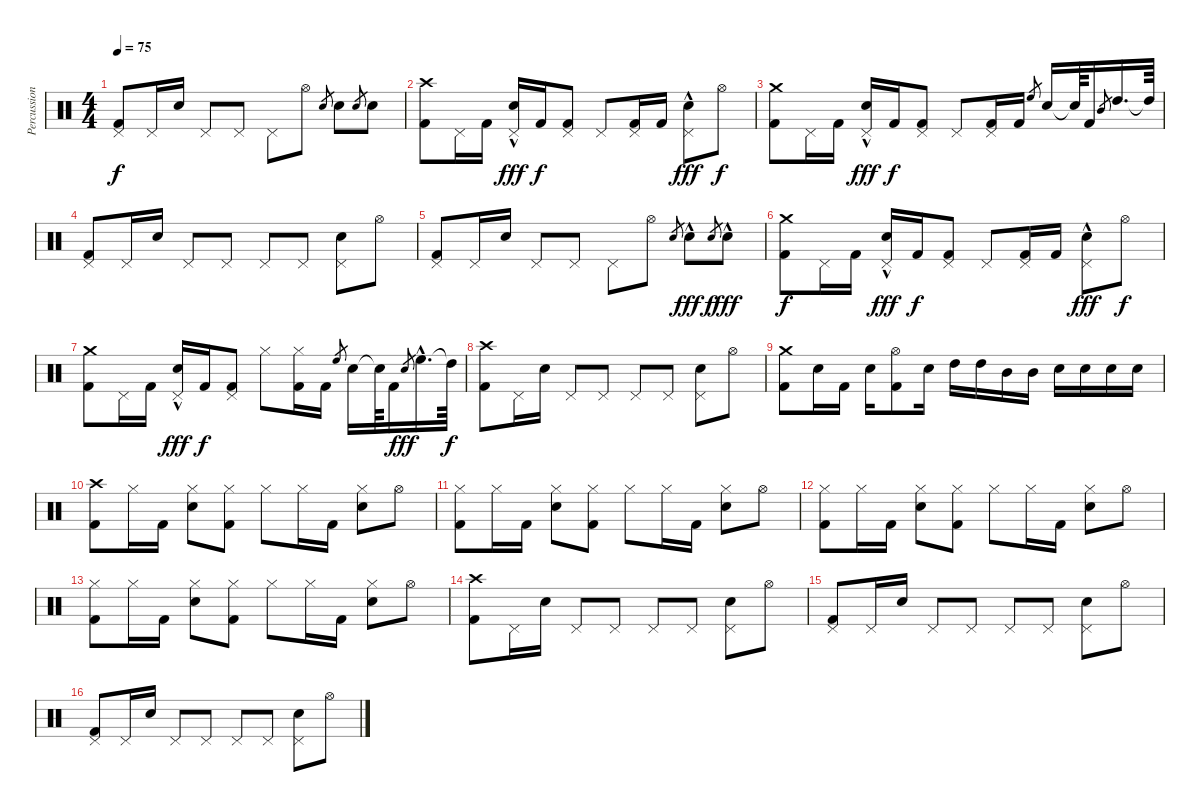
\track ("Percussion" "Percussion") {instrument percussion}
\staff {score}
\articulation defaults
\ts (4 4)
\tempo 75
\clef neutral
\ks c
("Pedal Hi-Hat (hit)" "Kick (hit) 2").8{dy f} "Pedal Hi-Hat (hit)".16 "Electric Snare (hit)".16 "Pedal Hi-Hat (hit)".8 "Pedal Hi-Hat (hit)".8 "Pedal Hi-Hat (hit)".8 "Hi-Hat (open)".8 "Electric Snare (hit)".8{gr} "Electric Snare (hit)".8 "Electric Snare (hit)".8{gr} "Electric Snare (hit)".8 |
("Crash high (hit)" "Kick (hit) 2").8 "Pedal Hi-Hat (hit)".16 "Kick (hit) 2".16 ("Pedal Hi-Hat (hit)" "Electric Snare (hit)"{hac}).16{dy fff} "Kick (hit) 2".16{dy f} ("Pedal Hi-Hat (hit)" "Kick (hit) 2").8 "Pedal Hi-Hat (hit)".8 ("Pedal Hi-Hat (hit)" "Kick (hit) 2").16 "Kick (hit) 2".16 ("Pedal Hi-Hat (hit)" "Electric Snare (hit)"{hac}).8{dy fff} "Hi-Hat (open)".8{dy f} |
("Crash medium (hit)" "Kick (hit) 2").8 "Pedal Hi-Hat (hit)".16 "Kick (hit) 2".16 ("Pedal Hi-Hat (hit)" "Electric Snare (hit)"{hac}).16{dy fff} "Kick (hit) 2".16{dy f} ("Pedal Hi-Hat (hit)" "Kick (hit) 2").8 "Pedal Hi-Hat (hit)".8 ("Pedal Hi-Hat (hit)" "Kick (hit) 2").16 "Kick (hit) 2".16 "High Floor Tom (hit)".8{gr} "Electric Snare (hit)".16 "Electric Snare (hit)"{t}.64 "Kick (hit) 2".16 "Mid Tom (hit)".8{gr} "High Tom (hit)".16{d} "High Tom (hit)"{t}.64 |
("Pedal Hi-Hat (hit)" "Kick (hit) 2").8 "Pedal Hi-Hat (hit)".16 "Electric Snare (hit)".16 "Pedal Hi-Hat (hit)".8 "Pedal Hi-Hat (hit)".8 "Pedal Hi-Hat (hit)".8 "Pedal Hi-Hat (hit)".8 ("Pedal Hi-Hat (hit)" "Electric Snare (hit)").8 "Hi-Hat (open)".8 |
("Pedal Hi-Hat (hit)" "Kick (hit) 2").8 "Pedal Hi-Hat (hit)".16 "Electric Snare (hit)".16 "Pedal Hi-Hat (hit)".8 "Pedal Hi-Hat (hit)".8 "Pedal Hi-Hat (hit)".8 "Hi-Hat (open)".8 "Electric Snare (hit)".8{gr} "Electric Snare (hit)"{hac}.8{dy fff} "Electric Snare (hit)".8{gr dy f} "Electric Snare (hit)"{hac}.8{dy fff} |
("Crash medium (hit)" "Kick (hit) 2").8{dy f} "Pedal Hi-Hat (hit)".16 "Kick (hit) 2".16 ("Pedal Hi-Hat (hit)" "Electric Snare (hit)"{hac}).16{dy fff} "Kick (hit) 2".16{dy f} ("Pedal Hi-Hat (hit)" "Kick (hit) 2").8 "Pedal Hi-Hat (hit)".8 ("Pedal Hi-Hat (hit)" "Kick (hit) 2").16 "Kick (hit) 2".16 ("Pedal Hi-Hat (hit)" "Electric Snare (hit)"{hac}).8{dy fff} "Hi-Hat (open)".8{dy f} |
("Crash medium (hit)" "Kick (hit) 2").8 "Pedal Hi-Hat (hit)".16 "Kick (hit) 2".16 ("Pedal Hi-Hat (hit)" "Electric Snare (hit)"{hac}).16{dy fff} "Kick (hit) 2".16{dy f} ("Pedal Hi-Hat (hit)" "Kick (hit) 2").8 "Hi-Hat (closed)".8 ("Hi-Hat (closed)" "Kick (hit) 2").16 "Kick (hit) 2".16 "High Floor Tom (hit)".8{gr} "Electric Snare (hit)".16 "Electric Snare (hit)"{t}.64 "Kick (hit) 2".16 "Electric Snare (hit)".8{gr dy fff} "High Floor Tom (hit)"{hac}.16{d} "High Tom (hit)"{t}.64{dy f} |
("Crash high (hit)" "Kick (hit) 2").8 "Pedal Hi-Hat (hit)".16 "Electric Snare (hit)".16 "Pedal Hi-Hat (hit)".8 "Pedal Hi-Hat (hit)".8 "Pedal Hi-Hat (hit)".8 "Pedal Hi-Hat (hit)".8 ("Pedal Hi-Hat (hit)" "Electric Snare (hit)").8 "Hi-Hat (open)".8 |
("Crash medium (hit)" "Kick (hit) 2").8 "Electric Snare (hit)".16 "Kick (hit) 2".16 "Electric Snare (hit)".16 ("Hi-Hat (open)" "Kick (hit) 2").8 "Electric Snare (hit)".16 "High Tom (hit)".16 "High Tom (hit)".16 "Mid Tom (hit)".16 "Mid Tom (hit)".16 "Electric Snare (hit)".16 "Electric Snare (hit)".16 "Electric Snare (hit)".16 "Electric Snare (hit)".16 |
("Crash high (hit)" "Kick (hit) 2").8 "Hi-Hat (closed)".16 "Kick (hit) 2".16 ("Hi-Hat (closed)" "Electric Snare (hit)").8 ("Hi-Hat (closed)" "Kick (hit) 2").8 "Hi-Hat (closed)".8 "Hi-Hat (closed)".16 "Kick (hit) 2".16 ("Hi-Hat (closed)" "Electric Snare (hit)").8 "Hi-Hat (open)".8 |
("Hi-Hat (closed)" "Kick (hit) 2").8 "Hi-Hat (closed)".16 "Kick (hit) 2".16 ("Hi-Hat (closed)" "Electric Snare (hit)").8 ("Hi-Hat (closed)" "Kick (hit) 2").8 "Hi-Hat (closed)".8 "Hi-Hat (closed)".16 "Kick (hit) 2".16 ("Hi-Hat (closed)" "Electric Snare (hit)").8 "Hi-Hat (open)".8 |
("Hi-Hat (closed)" "Kick (hit) 2").8 "Hi-Hat (closed)".16 "Kick (hit) 2".16 ("Hi-Hat (closed)" "Electric Snare (hit)").8 ("Hi-Hat (closed)" "Kick (hit) 2").8 "Hi-Hat (closed)".8 "Hi-Hat (closed)".16 "Kick (hit) 2".16 ("Hi-Hat (closed)" "Electric Snare (hit)").8 "Hi-Hat (open)".8 |
("Hi-Hat (closed)" "Kick (hit) 2").8 "Hi-Hat (closed)".16 "Kick (hit) 2".16 ("Hi-Hat (closed)" "Electric Snare (hit)").8 ("Hi-Hat (closed)" "Kick (hit) 2").8 "Hi-Hat (closed)".8 "Hi-Hat (closed)".16 "Kick (hit) 2".16 ("Hi-Hat (closed)" "Electric Snare (hit)").8 "Hi-Hat (open)".8 |
("Crash high (hit)" "Kick (hit) 2").8 "Pedal Hi-Hat (hit)".16 "Electric Snare (hit)".16 "Pedal Hi-Hat (hit)".8 "Pedal Hi-Hat (hit)".8 "Pedal Hi-Hat (hit)".8 "Pedal Hi-Hat (hit)".8 ("Pedal Hi-Hat (hit)" "Electric Snare (hit)").8 "Hi-Hat (open)".8 |
("Pedal Hi-Hat (hit)" "Kick (hit) 2").8 "Pedal Hi-Hat (hit)".16 "Electric Snare (hit)".16 "Pedal Hi-Hat (hit)".8 "Pedal Hi-Hat (hit)".8 "Pedal Hi-Hat (hit)".8 "Pedal Hi-Hat (hit)".8 ("Pedal Hi-Hat (hit)" "Electric Snare (hit)").8 "Hi-Hat (open)".8 |
("Pedal Hi-Hat (hit)" "Kick (hit) 2").8 "Pedal Hi-Hat (hit)".16 "Electric Snare (hit)".16 "Pedal Hi-Hat (hit)".8 "Pedal Hi-Hat (hit)".8 "Pedal Hi-Hat (hit)".8 "Pedal Hi-Hat (hit)".8 ("Pedal Hi-Hat (hit)" "Electric Snare (hit)").8 "Hi-Hat (open)".8
